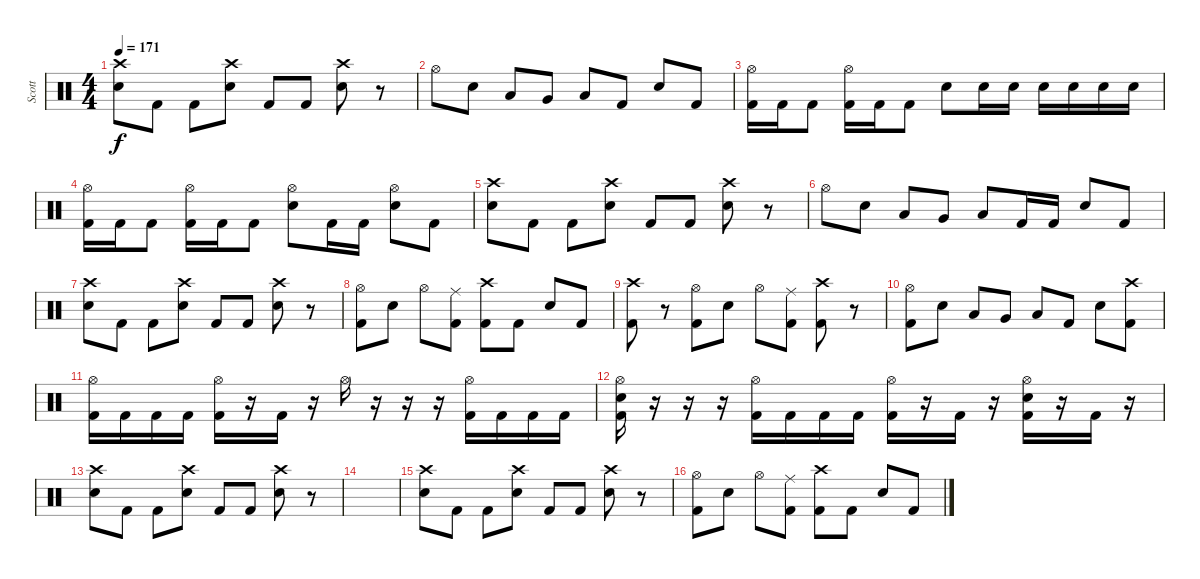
\track ("Scott" "Scott") {instrument percussion}
\staff {score}
\articulation defaults
\ts (4 4)
\tempo 171
\clef neutral
\ks c
("Crash high (hit)" "Electric Snare (hit)").8{dy f} "Kick (hit) 2".8 "Kick (hit) 2".8 ("Crash high (hit)" "Electric Snare (hit)").8 "Kick (hit) 2".8 "Kick (hit) 2".8 ("Crash high (hit)" "Electric Snare (hit)").8 r.8 |
"Hi-Hat (open)".8 "Electric Snare (hit)".8 "Low Tom (hit)".8 "Very Low Tom (hit)".8 "Low Floor Tom (hit)".8 "Kick (hit) 2".8 "Electric Snare (hit)".8 "Kick (hit) 2".8 |
("Hi-Hat (open)" "Kick (hit) 2").16 "Kick (hit) 2".16 "Kick (hit) 2".8 ("Hi-Hat (open)" "Kick (hit) 2").16 "Kick (hit) 2".16 "Kick (hit) 2".8 "Electric Snare (hit)".8 "Electric Snare (hit)".16 "Electric Snare (hit)".16 "Electric Snare (hit)".16 "Electric Snare (hit)".16 "Electric Snare (hit)".16 "Electric Snare (hit)".16 |
("Hi-Hat (open)" "Kick (hit) 2").16 "Kick (hit) 2".16 "Kick (hit) 2".8 ("Hi-Hat (open)" "Kick (hit) 2").16 "Kick (hit) 2".16 "Kick (hit) 2".8 ("Hi-Hat (open)" "Electric Snare (hit)").8 "Kick (hit) 2".16 "Kick (hit) 2".16 ("Hi-Hat (open)" "Electric Snare (hit)").8 "Kick (hit) 2".8 |
("Crash high (hit)" "Electric Snare (hit)").8 "Kick (hit) 2".8 "Kick (hit) 2".8 ("Crash high (hit)" "Electric Snare (hit)").8 "Kick (hit) 2".8 "Kick (hit) 2".8 ("Crash high (hit)" "Electric Snare (hit)").8 r.8 |
"Hi-Hat (open)".8 "Electric Snare (hit)".8 "Low Tom (hit)".8 "Very Low Tom (hit)".8 "Low Floor Tom (hit)".8 "Kick (hit) 2".16 "Kick (hit) 2".16 "Electric Snare (hit)".8 "Kick (hit) 2".8 |
("Crash high (hit)" "Electric Snare (hit)").8 "Kick (hit) 2".8 "Kick (hit) 2".8 ("Crash high (hit)" "Electric Snare (hit)").8 "Kick (hit) 2".8 "Kick (hit) 2".8 ("Crash high (hit)" "Electric Snare (hit)").8 r.8 |
("Hi-Hat (open)" "Kick (hit) 2").8 "Electric Snare (hit)".8 "Hi-Hat (open)".8 ("Ride (middle)" "Kick (hit) 2").8 ("Crash high (hit)" "Kick (hit) 2").8 "Kick (hit) 2".8 "Electric Snare (hit)".8 "Kick (hit) 2".8 |
("Crash high (hit)" "Kick (hit) 2").8 r.8 ("Hi-Hat (open)" "Kick (hit) 2").8 "Electric Snare (hit)".8 "Hi-Hat (open)".8 ("Ride (middle)" "Kick (hit) 2").8 ("Crash high (hit)" "Kick (hit) 2").8 r.8 |
("Hi-Hat (open)" "Kick (hit) 2").8 "Electric Snare (hit)".8 "Low Tom (hit)".8 "Very Low Tom (hit)".8 "Low Floor Tom (hit)".8 "Kick (hit) 2".8 "Electric Snare (hit)".8 ("Crash high (hit)" "Kick (hit) 2").8 |
("Hi-Hat (open)" "Kick (hit) 2").16 "Kick (hit) 2".16 "Kick (hit) 2".16 "Kick (hit) 2".16 ("Hi-Hat (open)" "Kick (hit) 2").16 r.16 "Kick (hit) 2".16 r.16 "Hi-Hat (open)".16 r.16 r.16 r.16 ("Hi-Hat (open)" "Kick (hit) 2").16 "Kick (hit) 2".16 "Kick (hit) 2".16 "Kick (hit) 2".16 |
("Hi-Hat (open)" "Electric Snare (hit)" "Kick (hit) 2").16 r.16 r.16 r.16 ("Hi-Hat (open)" "Kick (hit) 2").16 "Kick (hit) 2".16 "Kick (hit) 2".16 "Kick (hit) 2".16 ("Hi-Hat (open)" "Kick (hit) 2").16 r.16 "Kick (hit) 2".16 r.16 ("Hi-Hat (open)" "Electric Snare (hit)" "Kick (hit) 2").16 r.16 "Kick (hit) 2".16 r.16 |
("Crash high (hit)" "Electric Snare (hit)").8 "Kick (hit) 2".8 "Kick (hit) 2".8 ("Crash high (hit)" "Electric Snare (hit)").8 "Kick (hit) 2".8 "Kick (hit) 2".8 ("Crash high (hit)" "Electric Snare (hit)").8 r.8 |
|
("Crash high (hit)" "Electric Snare (hit)").8 "Kick (hit) 2".8 "Kick (hit) 2".8 ("Crash high (hit)" "Electric Snare (hit)").8 "Kick (hit) 2".8 "Kick (hit) 2".8 ("Crash high (hit)" "Electric Snare (hit)").8 r.8 |
("Hi-Hat (open)" "Kick (hit) 2").8 "Electric Snare (hit)".8 "Hi-Hat (open)".8 ("Ride (middle)" "Kick (hit) 2").8 ("Crash high (hit)" "Kick (hit) 2").8 "Kick (hit) 2".8 "Electric Snare (hit)".8 "Kick (hit) 2".8
